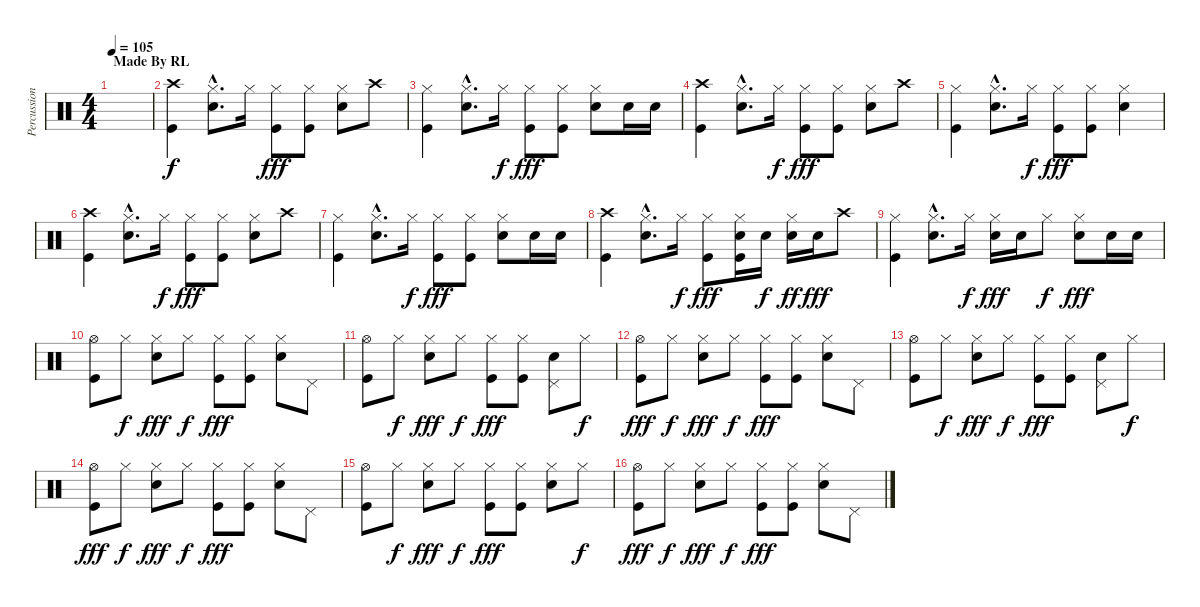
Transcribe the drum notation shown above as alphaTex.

\track ("Percussion" "Percussion") {instrument percussion}
\staff {score}
\articulation defaults
\ts (4 4)
\section ("" "Made By RL")
\tempo 105
\clef neutral
\ks c
|
("Crash high (hit)" "Kick (hit)").4 ("Hi-Hat (closed)"{hac} "Electric Snare (hit)"{hac}).8{d} "Hi-Hat (closed)".16{dy f} ("Hi-Hat (closed)" "Kick (hit)").8{dy fff} ("Hi-Hat (closed)" "Kick (hit)").8 ("Hi-Hat (closed)" "Electric Snare (hit)").8 "Crash high (hit)".8 |
("Hi-Hat (closed)" "Kick (hit)").4 ("Hi-Hat (closed)"{hac} "Electric Snare (hit)"{hac}).8{d} "Hi-Hat (closed)".16{dy f} ("Hi-Hat (closed)" "Kick (hit)").8{dy fff} ("Hi-Hat (closed)" "Kick (hit)").8 ("Hi-Hat (closed)" "Electric Snare (hit)").8 "Electric Snare (hit)".16 "Electric Snare (hit)".16 |
("Crash high (hit)" "Kick (hit)").4 ("Hi-Hat (closed)"{hac} "Electric Snare (hit)"{hac}).8{d} "Hi-Hat (closed)".16{dy f} ("Hi-Hat (closed)" "Kick (hit)").8{dy fff} ("Hi-Hat (closed)" "Kick (hit)").8 ("Hi-Hat (closed)" "Electric Snare (hit)").8 "Crash high (hit)".8 |
("Hi-Hat (closed)" "Kick (hit)").4 ("Hi-Hat (closed)"{hac} "Electric Snare (hit)"{hac}).8{d} "Hi-Hat (closed)".16{dy f} ("Hi-Hat (closed)" "Kick (hit)").8{dy fff} ("Hi-Hat (closed)" "Kick (hit)").8 ("Hi-Hat (closed)" "Electric Snare (hit)").4 |
("Crash high (hit)" "Kick (hit)").4 ("Hi-Hat (closed)"{hac} "Electric Snare (hit)"{hac}).8{d} "Hi-Hat (closed)".16{dy f} ("Hi-Hat (closed)" "Kick (hit)").8{dy fff} ("Hi-Hat (closed)" "Kick (hit)").8 ("Hi-Hat (closed)" "Electric Snare (hit)").8 "Crash high (hit)".8 |
("Hi-Hat (closed)" "Kick (hit)").4 ("Hi-Hat (closed)"{hac} "Electric Snare (hit)"{hac}).8{d} "Hi-Hat (closed)".16{dy f} ("Hi-Hat (closed)" "Kick (hit)").8{dy fff} ("Hi-Hat (closed)" "Kick (hit)").8 ("Hi-Hat (closed)" "Electric Snare (hit)").8 "Electric Snare (hit)".16 "Electric Snare (hit)".16 |
("Crash high (hit)" "Kick (hit)").4 ("Hi-Hat (closed)"{hac} "Electric Snare (hit)"{hac}).8{d} "Hi-Hat (closed)".16{dy f} ("Hi-Hat (closed)" "Kick (hit)").8{dy fff} ("Hi-Hat (closed)" "Electric Snare (hit)" "Kick (hit)").16 "Electric Snare (hit)".16{dy f} ("Hi-Hat (closed)" "Electric Snare (hit)").16{dy ff} "Electric Snare (hit)".16{dy fff} "Crash high (hit)".8 |
("Hi-Hat (closed)" "Kick (hit)").4 ("Hi-Hat (closed)"{hac} "Electric Snare (hit)"{hac}).8{d} "Hi-Hat (closed)".16{dy f} ("Hi-Hat (closed)" "Electric Snare (hit)").16{dy fff} "Electric Snare (hit)".16 "Hi-Hat (closed)".8{dy f} ("Hi-Hat (closed)" "Electric Snare (hit)").8{dy fff} "Electric Snare (hit)".16 "Electric Snare (hit)".16 |
("Hi-Hat (open)" "Kick (hit)").8 "Hi-Hat (closed)".8{dy f} ("Hi-Hat (closed)" "Electric Snare (hit)").8{dy fff} "Hi-Hat (closed)".8{dy f} ("Hi-Hat (closed)" "Kick (hit)").8{dy fff} ("Hi-Hat (closed)" "Kick (hit)").8 ("Hi-Hat (closed)" "Electric Snare (hit)").8 "Pedal Hi-Hat (hit)".8 |
("Hi-Hat (open)" "Kick (hit)").8 "Hi-Hat (closed)".8{dy f} ("Hi-Hat (closed)" "Electric Snare (hit)").8{dy fff} "Hi-Hat (closed)".8{dy f} ("Hi-Hat (closed)" "Kick (hit)").8{dy fff} ("Hi-Hat (closed)" "Kick (hit)").8 ("Pedal Hi-Hat (hit)" "Electric Snare (hit)").8 "Hi-Hat (closed)".8{dy f} |
("Hi-Hat (open)" "Kick (hit)").8{dy fff} "Hi-Hat (closed)".8{dy f} ("Hi-Hat (closed)" "Electric Snare (hit)").8{dy fff} "Hi-Hat (closed)".8{dy f} ("Hi-Hat (closed)" "Kick (hit)").8{dy fff} ("Hi-Hat (closed)" "Kick (hit)").8 ("Hi-Hat (closed)" "Electric Snare (hit)").8 "Pedal Hi-Hat (hit)".8 |
("Hi-Hat (open)" "Kick (hit)").8 "Hi-Hat (closed)".8{dy f} ("Hi-Hat (closed)" "Electric Snare (hit)").8{dy fff} "Hi-Hat (closed)".8{dy f} ("Hi-Hat (closed)" "Kick (hit)").8{dy fff} ("Hi-Hat (closed)" "Kick (hit)").8 ("Pedal Hi-Hat (hit)" "Electric Snare (hit)").8 "Hi-Hat (closed)".8{dy f} |
("Hi-Hat (open)" "Kick (hit)").8{dy fff} "Hi-Hat (closed)".8{dy f} ("Hi-Hat (closed)" "Electric Snare (hit)").8{dy fff} "Hi-Hat (closed)".8{dy f} ("Hi-Hat (closed)" "Kick (hit)").8{dy fff} ("Hi-Hat (closed)" "Kick (hit)").8 ("Hi-Hat (closed)" "Electric Snare (hit)").8 "Pedal Hi-Hat (hit)".8 |
("Hi-Hat (open)" "Kick (hit)").8 "Hi-Hat (closed)".8{dy f} ("Hi-Hat (closed)" "Electric Snare (hit)").8{dy fff} "Hi-Hat (closed)".8{dy f} ("Hi-Hat (closed)" "Kick (hit)").8{dy fff} ("Hi-Hat (closed)" "Kick (hit)").8 ("Hi-Hat (closed)" "Electric Snare (hit)").8 "Hi-Hat (closed)".8{dy f} |
("Hi-Hat (open)" "Kick (hit)").8{dy fff} "Hi-Hat (closed)".8{dy f} ("Hi-Hat (closed)" "Electric Snare (hit)").8{dy fff} "Hi-Hat (closed)".8{dy f} ("Hi-Hat (closed)" "Kick (hit)").8{dy fff} ("Hi-Hat (closed)" "Kick (hit)").8 ("Hi-Hat (closed)" "Electric Snare (hit)").8 "Pedal Hi-Hat (hit)".8
